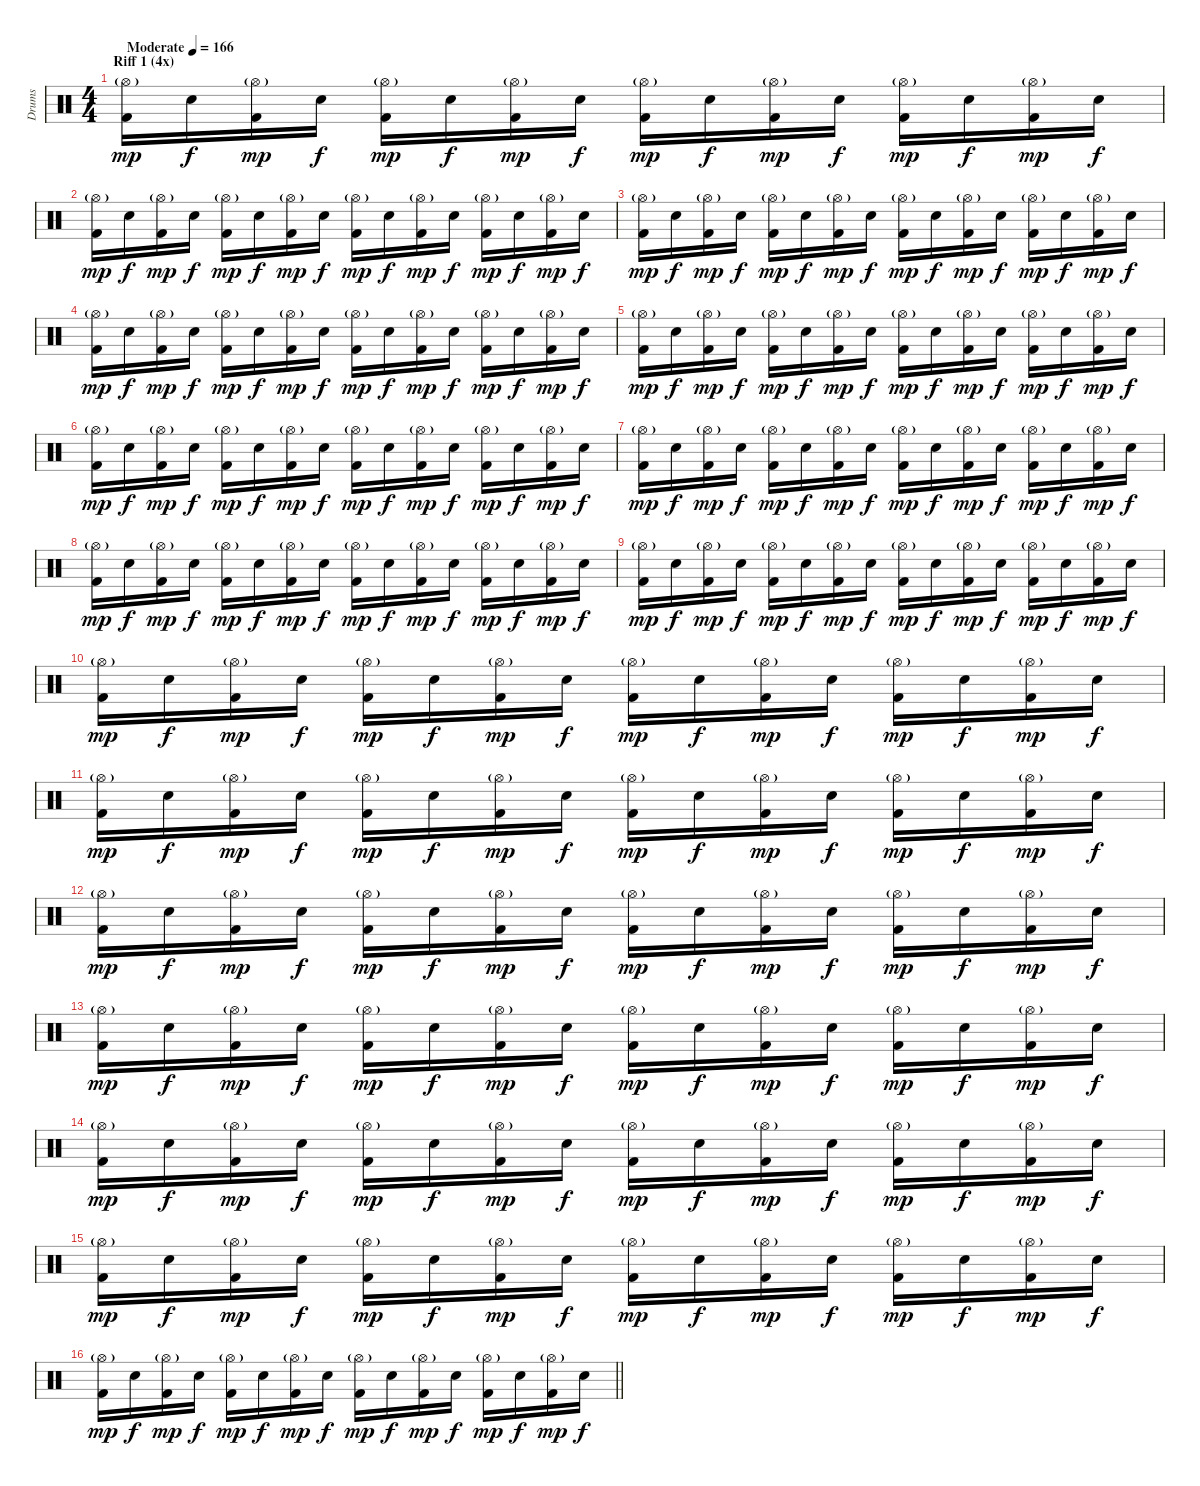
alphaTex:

\track ("Drums" "Drums") {instrument percussion}
\staff {score}
\articulation defaults
\ts (4 4)
\section ("" "Riff 1 (4x)")
\tempo (166 "Moderate")
\clef neutral
\ks c
("Hi-Hat (open)"{g} "Kick (hit) 2").16{dy mp} "Electric Snare (hit)".16{dy f} ("Hi-Hat (open)"{g} "Kick (hit) 2").16{dy mp} "Electric Snare (hit)".16{dy f} ("Hi-Hat (open)"{g} "Kick (hit) 2").16{dy mp} "Electric Snare (hit)".16{dy f} ("Hi-Hat (open)"{g} "Kick (hit) 2").16{dy mp} "Electric Snare (hit)".16{dy f} ("Hi-Hat (open)"{g} "Kick (hit) 2").16{dy mp} "Electric Snare (hit)".16{dy f} ("Hi-Hat (open)"{g} "Kick (hit) 2").16{dy mp} "Electric Snare (hit)".16{dy f} ("Hi-Hat (open)"{g} "Kick (hit) 2").16{dy mp} "Electric Snare (hit)".16{dy f} ("Hi-Hat (open)"{g} "Kick (hit) 2").16{dy mp} "Electric Snare (hit)".16{dy f} |
("Hi-Hat (open)"{g} "Kick (hit) 2").16{dy mp} "Electric Snare (hit)".16{dy f} ("Hi-Hat (open)"{g} "Kick (hit) 2").16{dy mp} "Electric Snare (hit)".16{dy f} ("Hi-Hat (open)"{g} "Kick (hit) 2").16{dy mp} "Electric Snare (hit)".16{dy f} ("Hi-Hat (open)"{g} "Kick (hit) 2").16{dy mp} "Electric Snare (hit)".16{dy f} ("Hi-Hat (open)"{g} "Kick (hit) 2").16{dy mp} "Electric Snare (hit)".16{dy f} ("Hi-Hat (open)"{g} "Kick (hit) 2").16{dy mp} "Electric Snare (hit)".16{dy f} ("Hi-Hat (open)"{g} "Kick (hit) 2").16{dy mp} "Electric Snare (hit)".16{dy f} ("Hi-Hat (open)"{g} "Kick (hit) 2").16{dy mp} "Electric Snare (hit)".16{dy f} |
("Hi-Hat (open)"{g} "Kick (hit) 2").16{dy mp} "Electric Snare (hit)".16{dy f} ("Hi-Hat (open)"{g} "Kick (hit) 2").16{dy mp} "Electric Snare (hit)".16{dy f} ("Hi-Hat (open)"{g} "Kick (hit) 2").16{dy mp} "Electric Snare (hit)".16{dy f} ("Hi-Hat (open)"{g} "Kick (hit) 2").16{dy mp} "Electric Snare (hit)".16{dy f} ("Hi-Hat (open)"{g} "Kick (hit) 2").16{dy mp} "Electric Snare (hit)".16{dy f} ("Hi-Hat (open)"{g} "Kick (hit) 2").16{dy mp} "Electric Snare (hit)".16{dy f} ("Hi-Hat (open)"{g} "Kick (hit) 2").16{dy mp} "Electric Snare (hit)".16{dy f} ("Hi-Hat (open)"{g} "Kick (hit) 2").16{dy mp} "Electric Snare (hit)".16{dy f} |
("Hi-Hat (open)"{g} "Kick (hit) 2").16{dy mp} "Electric Snare (hit)".16{dy f} ("Hi-Hat (open)"{g} "Kick (hit) 2").16{dy mp} "Electric Snare (hit)".16{dy f} ("Hi-Hat (open)"{g} "Kick (hit) 2").16{dy mp} "Electric Snare (hit)".16{dy f} ("Hi-Hat (open)"{g} "Kick (hit) 2").16{dy mp} "Electric Snare (hit)".16{dy f} ("Hi-Hat (open)"{g} "Kick (hit) 2").16{dy mp} "Electric Snare (hit)".16{dy f} ("Hi-Hat (open)"{g} "Kick (hit) 2").16{dy mp} "Electric Snare (hit)".16{dy f} ("Hi-Hat (open)"{g} "Kick (hit) 2").16{dy mp} "Electric Snare (hit)".16{dy f} ("Hi-Hat (open)"{g} "Kick (hit) 2").16{dy mp} "Electric Snare (hit)".16{dy f} |
("Hi-Hat (open)"{g} "Kick (hit) 2").16{dy mp} "Electric Snare (hit)".16{dy f} ("Hi-Hat (open)"{g} "Kick (hit) 2").16{dy mp} "Electric Snare (hit)".16{dy f} ("Hi-Hat (open)"{g} "Kick (hit) 2").16{dy mp} "Electric Snare (hit)".16{dy f} ("Hi-Hat (open)"{g} "Kick (hit) 2").16{dy mp} "Electric Snare (hit)".16{dy f} ("Hi-Hat (open)"{g} "Kick (hit) 2").16{dy mp} "Electric Snare (hit)".16{dy f} ("Hi-Hat (open)"{g} "Kick (hit) 2").16{dy mp} "Electric Snare (hit)".16{dy f} ("Hi-Hat (open)"{g} "Kick (hit) 2").16{dy mp} "Electric Snare (hit)".16{dy f} ("Hi-Hat (open)"{g} "Kick (hit) 2").16{dy mp} "Electric Snare (hit)".16{dy f} |
("Hi-Hat (open)"{g} "Kick (hit) 2").16{dy mp} "Electric Snare (hit)".16{dy f} ("Hi-Hat (open)"{g} "Kick (hit) 2").16{dy mp} "Electric Snare (hit)".16{dy f} ("Hi-Hat (open)"{g} "Kick (hit) 2").16{dy mp} "Electric Snare (hit)".16{dy f} ("Hi-Hat (open)"{g} "Kick (hit) 2").16{dy mp} "Electric Snare (hit)".16{dy f} ("Hi-Hat (open)"{g} "Kick (hit) 2").16{dy mp} "Electric Snare (hit)".16{dy f} ("Hi-Hat (open)"{g} "Kick (hit) 2").16{dy mp} "Electric Snare (hit)".16{dy f} ("Hi-Hat (open)"{g} "Kick (hit) 2").16{dy mp} "Electric Snare (hit)".16{dy f} ("Hi-Hat (open)"{g} "Kick (hit) 2").16{dy mp} "Electric Snare (hit)".16{dy f} |
("Hi-Hat (open)"{g} "Kick (hit) 2").16{dy mp} "Electric Snare (hit)".16{dy f} ("Hi-Hat (open)"{g} "Kick (hit) 2").16{dy mp} "Electric Snare (hit)".16{dy f} ("Hi-Hat (open)"{g} "Kick (hit) 2").16{dy mp} "Electric Snare (hit)".16{dy f} ("Hi-Hat (open)"{g} "Kick (hit) 2").16{dy mp} "Electric Snare (hit)".16{dy f} ("Hi-Hat (open)"{g} "Kick (hit) 2").16{dy mp} "Electric Snare (hit)".16{dy f} ("Hi-Hat (open)"{g} "Kick (hit) 2").16{dy mp} "Electric Snare (hit)".16{dy f} ("Hi-Hat (open)"{g} "Kick (hit) 2").16{dy mp} "Electric Snare (hit)".16{dy f} ("Hi-Hat (open)"{g} "Kick (hit) 2").16{dy mp} "Electric Snare (hit)".16{dy f} |
("Hi-Hat (open)"{g} "Kick (hit) 2").16{dy mp} "Electric Snare (hit)".16{dy f} ("Hi-Hat (open)"{g} "Kick (hit) 2").16{dy mp} "Electric Snare (hit)".16{dy f} ("Hi-Hat (open)"{g} "Kick (hit) 2").16{dy mp} "Electric Snare (hit)".16{dy f} ("Hi-Hat (open)"{g} "Kick (hit) 2").16{dy mp} "Electric Snare (hit)".16{dy f} ("Hi-Hat (open)"{g} "Kick (hit) 2").16{dy mp} "Electric Snare (hit)".16{dy f} ("Hi-Hat (open)"{g} "Kick (hit) 2").16{dy mp} "Electric Snare (hit)".16{dy f} ("Hi-Hat (open)"{g} "Kick (hit) 2").16{dy mp} "Electric Snare (hit)".16{dy f} ("Hi-Hat (open)"{g} "Kick (hit) 2").16{dy mp} "Electric Snare (hit)".16{dy f} |
("Hi-Hat (open)"{g} "Kick (hit) 2").16{dy mp} "Electric Snare (hit)".16{dy f} ("Hi-Hat (open)"{g} "Kick (hit) 2").16{dy mp} "Electric Snare (hit)".16{dy f} ("Hi-Hat (open)"{g} "Kick (hit) 2").16{dy mp} "Electric Snare (hit)".16{dy f} ("Hi-Hat (open)"{g} "Kick (hit) 2").16{dy mp} "Electric Snare (hit)".16{dy f} ("Hi-Hat (open)"{g} "Kick (hit) 2").16{dy mp} "Electric Snare (hit)".16{dy f} ("Hi-Hat (open)"{g} "Kick (hit) 2").16{dy mp} "Electric Snare (hit)".16{dy f} ("Hi-Hat (open)"{g} "Kick (hit) 2").16{dy mp} "Electric Snare (hit)".16{dy f} ("Hi-Hat (open)"{g} "Kick (hit) 2").16{dy mp} "Electric Snare (hit)".16{dy f} |
("Hi-Hat (open)"{g} "Kick (hit) 2").16{dy mp} "Electric Snare (hit)".16{dy f} ("Hi-Hat (open)"{g} "Kick (hit) 2").16{dy mp} "Electric Snare (hit)".16{dy f} ("Hi-Hat (open)"{g} "Kick (hit) 2").16{dy mp} "Electric Snare (hit)".16{dy f} ("Hi-Hat (open)"{g} "Kick (hit) 2").16{dy mp} "Electric Snare (hit)".16{dy f} ("Hi-Hat (open)"{g} "Kick (hit) 2").16{dy mp} "Electric Snare (hit)".16{dy f} ("Hi-Hat (open)"{g} "Kick (hit) 2").16{dy mp} "Electric Snare (hit)".16{dy f} ("Hi-Hat (open)"{g} "Kick (hit) 2").16{dy mp} "Electric Snare (hit)".16{dy f} ("Hi-Hat (open)"{g} "Kick (hit) 2").16{dy mp} "Electric Snare (hit)".16{dy f} |
("Hi-Hat (open)"{g} "Kick (hit) 2").16{dy mp} "Electric Snare (hit)".16{dy f} ("Hi-Hat (open)"{g} "Kick (hit) 2").16{dy mp} "Electric Snare (hit)".16{dy f} ("Hi-Hat (open)"{g} "Kick (hit) 2").16{dy mp} "Electric Snare (hit)".16{dy f} ("Hi-Hat (open)"{g} "Kick (hit) 2").16{dy mp} "Electric Snare (hit)".16{dy f} ("Hi-Hat (open)"{g} "Kick (hit) 2").16{dy mp} "Electric Snare (hit)".16{dy f} ("Hi-Hat (open)"{g} "Kick (hit) 2").16{dy mp} "Electric Snare (hit)".16{dy f} ("Hi-Hat (open)"{g} "Kick (hit) 2").16{dy mp} "Electric Snare (hit)".16{dy f} ("Hi-Hat (open)"{g} "Kick (hit) 2").16{dy mp} "Electric Snare (hit)".16{dy f} |
("Hi-Hat (open)"{g} "Kick (hit) 2").16{dy mp} "Electric Snare (hit)".16{dy f} ("Hi-Hat (open)"{g} "Kick (hit) 2").16{dy mp} "Electric Snare (hit)".16{dy f} ("Hi-Hat (open)"{g} "Kick (hit) 2").16{dy mp} "Electric Snare (hit)".16{dy f} ("Hi-Hat (open)"{g} "Kick (hit) 2").16{dy mp} "Electric Snare (hit)".16{dy f} ("Hi-Hat (open)"{g} "Kick (hit) 2").16{dy mp} "Electric Snare (hit)".16{dy f} ("Hi-Hat (open)"{g} "Kick (hit) 2").16{dy mp} "Electric Snare (hit)".16{dy f} ("Hi-Hat (open)"{g} "Kick (hit) 2").16{dy mp} "Electric Snare (hit)".16{dy f} ("Hi-Hat (open)"{g} "Kick (hit) 2").16{dy mp} "Electric Snare (hit)".16{dy f} |
("Hi-Hat (open)"{g} "Kick (hit) 2").16{dy mp} "Electric Snare (hit)".16{dy f} ("Hi-Hat (open)"{g} "Kick (hit) 2").16{dy mp} "Electric Snare (hit)".16{dy f} ("Hi-Hat (open)"{g} "Kick (hit) 2").16{dy mp} "Electric Snare (hit)".16{dy f} ("Hi-Hat (open)"{g} "Kick (hit) 2").16{dy mp} "Electric Snare (hit)".16{dy f} ("Hi-Hat (open)"{g} "Kick (hit) 2").16{dy mp} "Electric Snare (hit)".16{dy f} ("Hi-Hat (open)"{g} "Kick (hit) 2").16{dy mp} "Electric Snare (hit)".16{dy f} ("Hi-Hat (open)"{g} "Kick (hit) 2").16{dy mp} "Electric Snare (hit)".16{dy f} ("Hi-Hat (open)"{g} "Kick (hit) 2").16{dy mp} "Electric Snare (hit)".16{dy f} |
("Hi-Hat (open)"{g} "Kick (hit) 2").16{dy mp} "Electric Snare (hit)".16{dy f} ("Hi-Hat (open)"{g} "Kick (hit) 2").16{dy mp} "Electric Snare (hit)".16{dy f} ("Hi-Hat (open)"{g} "Kick (hit) 2").16{dy mp} "Electric Snare (hit)".16{dy f} ("Hi-Hat (open)"{g} "Kick (hit) 2").16{dy mp} "Electric Snare (hit)".16{dy f} ("Hi-Hat (open)"{g} "Kick (hit) 2").16{dy mp} "Electric Snare (hit)".16{dy f} ("Hi-Hat (open)"{g} "Kick (hit) 2").16{dy mp} "Electric Snare (hit)".16{dy f} ("Hi-Hat (open)"{g} "Kick (hit) 2").16{dy mp} "Electric Snare (hit)".16{dy f} ("Hi-Hat (open)"{g} "Kick (hit) 2").16{dy mp} "Electric Snare (hit)".16{dy f} |
("Hi-Hat (open)"{g} "Kick (hit) 2").16{dy mp} "Electric Snare (hit)".16{dy f} ("Hi-Hat (open)"{g} "Kick (hit) 2").16{dy mp} "Electric Snare (hit)".16{dy f} ("Hi-Hat (open)"{g} "Kick (hit) 2").16{dy mp} "Electric Snare (hit)".16{dy f} ("Hi-Hat (open)"{g} "Kick (hit) 2").16{dy mp} "Electric Snare (hit)".16{dy f} ("Hi-Hat (open)"{g} "Kick (hit) 2").16{dy mp} "Electric Snare (hit)".16{dy f} ("Hi-Hat (open)"{g} "Kick (hit) 2").16{dy mp} "Electric Snare (hit)".16{dy f} ("Hi-Hat (open)"{g} "Kick (hit) 2").16{dy mp} "Electric Snare (hit)".16{dy f} ("Hi-Hat (open)"{g} "Kick (hit) 2").16{dy mp} "Electric Snare (hit)".16{dy f} |
\barLineRight lightlight
("Hi-Hat (open)"{g} "Kick (hit) 2").16{dy mp} "Electric Snare (hit)".16{dy f} ("Hi-Hat (open)"{g} "Kick (hit) 2").16{dy mp} "Electric Snare (hit)".16{dy f} ("Hi-Hat (open)"{g} "Kick (hit) 2").16{dy mp} "Electric Snare (hit)".16{dy f} ("Hi-Hat (open)"{g} "Kick (hit) 2").16{dy mp} "Electric Snare (hit)".16{dy f} ("Hi-Hat (open)"{g} "Kick (hit) 2").16{dy mp} "Electric Snare (hit)".16{dy f} ("Hi-Hat (open)"{g} "Kick (hit) 2").16{dy mp} "Electric Snare (hit)".16{dy f} ("Hi-Hat (open)"{g} "Kick (hit) 2").16{dy mp} "Electric Snare (hit)".16{dy f} ("Hi-Hat (open)"{g} "Kick (hit) 2").16{dy mp} "Electric Snare (hit)".16{dy f}
